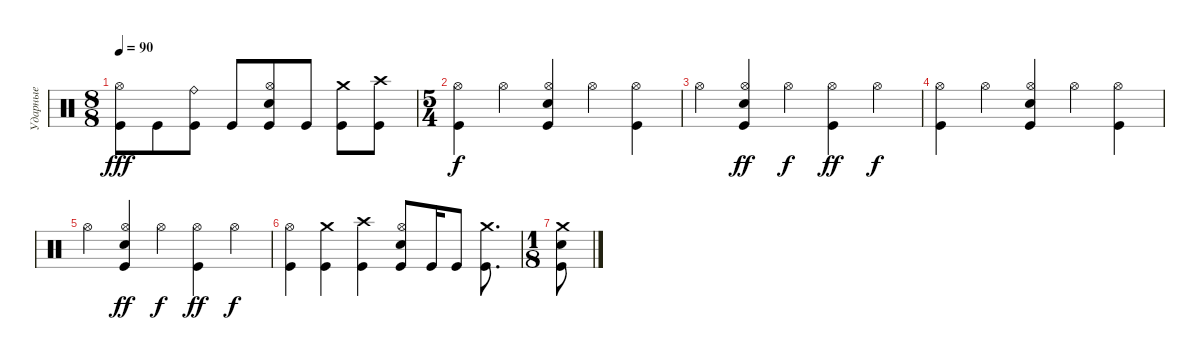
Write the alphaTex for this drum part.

\track ("Ударные" "Ударные") {instrument percussion}
\staff {score}
\articulation defaults
\ts (8 8)
\tempo 90
\clef neutral
\ks c
("Kick (hit)" "Hi-Hat (open)").8{dy fff} "Kick (hit)".8 ("Kick (hit)" "Ride (bell)").8 "Kick (hit)".8 ("Kick (hit)" "Snare (hit) 2" "Hi-Hat (open)").8 "Kick (hit)".8 ("Kick (hit)" "Crash medium (hit)").8 ("Kick (hit)" "Crash high (hit)").8 |
\ts (5 4)
("Hi-Hat (open)" "Kick (hit)").4{dy f} "Hi-Hat (open)".4 ("Hi-Hat (open)" "Snare (hit) 2" "Kick (hit)").4 "Hi-Hat (open)".4 ("Hi-Hat (open)" "Kick (hit)").4 |
"Hi-Hat (open)".4 ("Hi-Hat (open)" "Snare (hit) 2" "Kick (hit)").4{dy ff} "Hi-Hat (open)".4{dy f} ("Hi-Hat (open)" "Kick (hit)").4{dy ff} "Hi-Hat (open)".4{dy f} |
("Hi-Hat (open)" "Kick (hit)").4 "Hi-Hat (open)".4 ("Hi-Hat (open)" "Snare (hit) 2" "Kick (hit)").4 "Hi-Hat (open)".4 ("Hi-Hat (open)" "Kick (hit)").4 |
"Hi-Hat (open)".4 ("Hi-Hat (open)" "Snare (hit) 2" "Kick (hit)").4{dy ff} "Hi-Hat (open)".4{dy f} ("Hi-Hat (open)" "Kick (hit)").4{dy ff} "Hi-Hat (open)".4{dy f} |
("Hi-Hat (open)" "Kick (hit)").4 ("Crash medium (hit)" "Kick (hit)").4 ("Crash high (hit)" "Kick (hit)").4 ("Hi-Hat (open)" "Snare (hit) 2" "Kick (hit)").8 "Kick (hit)".16 "Kick (hit)".8 ("Crash medium (hit)" "Kick (hit)").8{d} |
\ts (1 8)
("Crash medium (hit)" "Kick (hit)" "Snare (hit) 2").8
